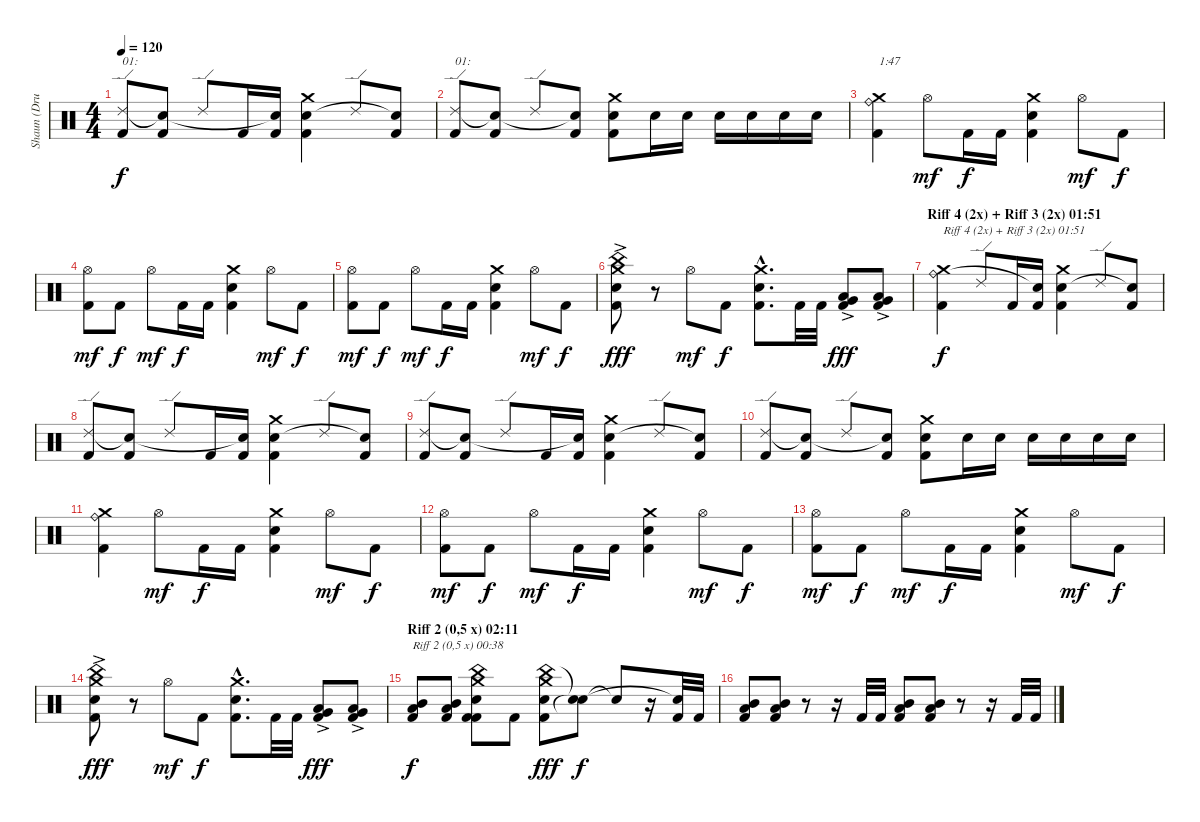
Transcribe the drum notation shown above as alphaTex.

\track ("Shaun (Drums Of DOOM)" "Shaun (Dru") {instrument percussion}
\staff {score}
\articulation defaults
\ts (4 4)
\tempo 120
\clef neutral
\ks c
("Kick (hit) 2" "Ride (edge) 2").8{txt "01:" dy f} ("Kick (hit) 2" "Snare (hit)"{t}).8 "Ride (edge) 2".8 "Kick (hit) 2".16 ("Kick (hit) 2" "Snare (hit)"{t}).16 ("Kick (hit) 2" "Electric Snare (hit)" "Crash medium (hit)").4 "Ride (edge) 2".8 ("Kick (hit) 2" "Snare (hit)"{t}).8 |
("Kick (hit) 2" "Ride (edge) 2").8{txt "01:"} ("Kick (hit) 2" "Snare (hit)"{t}).8 "Ride (edge) 2".8 ("Kick (hit) 2" "Snare (hit)"{t}).8 ("Kick (hit) 2" "Electric Snare (hit)" "Crash medium (hit)").8 "Electric Snare (hit)".16 "Electric Snare (hit)".16 "Electric Snare (hit)".16 "Electric Snare (hit)".16 "Electric Snare (hit)".16 "Electric Snare (hit)".16 |
("Kick (hit) 2" "Ride (bell)" "Crash medium (hit)").4{txt "1:47"} "Hi-Hat (open)".8{dy mf} "Kick (hit) 2".16{dy f} "Kick (hit) 2".16 ("Kick (hit) 2" "Electric Snare (hit)" "Crash medium (hit)").4 "Hi-Hat (open)".8{dy mf} "Kick (hit) 2".8{dy f} |
("Kick (hit) 2" "Hi-Hat (open)").8{dy mf} "Kick (hit) 2".8{dy f} "Hi-Hat (open)".8{dy mf} "Kick (hit) 2".16{dy f} "Kick (hit) 2".16 ("Kick (hit) 2" "Electric Snare (hit)" "Crash medium (hit)").4 "Hi-Hat (open)".8{dy mf} "Kick (hit) 2".8{dy f} |
("Kick (hit) 2" "Hi-Hat (open)").8{dy mf} "Kick (hit) 2".8{dy f} "Hi-Hat (open)".8{dy mf} "Kick (hit) 2".16{dy f} "Kick (hit) 2".16 ("Kick (hit) 2" "Electric Snare (hit)" "Crash medium (hit)").4 "Hi-Hat (open)".8{dy mf} "Kick (hit) 2".8{dy f} |
("Kick (hit) 2" "Electric Snare (hit)" "China (hit)"{ac} "Crash medium (hit)"{ac}).8{dy fff} r.8 "Hi-Hat (open)".8{dy mf} "Kick (hit) 2".8{dy f} ("Kick (hit) 2"{hac} "Electric Snare (hit)"{hac} "Crash medium (hit)"{hac}).8{d} "Kick (hit) 2".32 "Kick (hit) 2".32 ("Kick (hit) 2" "Low Floor Tom (hit)"{ac} "Very Low Tom (hit)"{ac}).8{dy fff} ("Kick (hit) 2" "Low Tom (hit)"{ac} "Very Low Tom (hit)"{ac}).8 |
\section ("" "Riff 4 (2x) + Riff 3 (2x) 01:51")
("Kick (hit) 2" "Ride (bell)" "Crash medium (hit)").4{txt "Riff 4 (2x) + Riff 3 (2x) 01:51" dy f} "Ride (edge) 2".8 "Kick (hit) 2".16 ("Kick (hit) 2" "Snare (hit)"{t}).16 ("Kick (hit) 2" "Electric Snare (hit)" "Crash medium (hit)").4 "Ride (edge) 2".8 ("Kick (hit) 2" "Snare (hit)"{t}).8 |
("Kick (hit) 2" "Ride (edge) 2").8 ("Kick (hit) 2" "Snare (hit)"{t}).8 "Ride (edge) 2".8 "Kick (hit) 2".16 ("Kick (hit) 2" "Snare (hit)"{t}).16 ("Kick (hit) 2" "Electric Snare (hit)" "Crash medium (hit)").4 "Ride (edge) 2".8 ("Kick (hit) 2" "Snare (hit)"{t}).8 |
("Kick (hit) 2" "Ride (edge) 2").8 ("Kick (hit) 2" "Snare (hit)"{t}).8 "Ride (edge) 2".8 "Kick (hit) 2".16 ("Kick (hit) 2" "Snare (hit)"{t}).16 ("Kick (hit) 2" "Electric Snare (hit)" "Crash medium (hit)").4 "Ride (edge) 2".8 ("Kick (hit) 2" "Snare (hit)"{t}).8 |
("Kick (hit) 2" "Ride (edge) 2").8 ("Kick (hit) 2" "Snare (hit)"{t}).8 "Ride (edge) 2".8 ("Kick (hit) 2" "Snare (hit)"{t}).8 ("Kick (hit) 2" "Electric Snare (hit)" "Crash medium (hit)").8 "Electric Snare (hit)".16 "Electric Snare (hit)".16 "Electric Snare (hit)".16 "Electric Snare (hit)".16 "Electric Snare (hit)".16 "Electric Snare (hit)".16 |
("Kick (hit) 2" "Ride (bell)" "Crash medium (hit)").4 "Hi-Hat (open)".8{dy mf} "Kick (hit) 2".16{dy f} "Kick (hit) 2".16 ("Kick (hit) 2" "Electric Snare (hit)" "Crash medium (hit)").4 "Hi-Hat (open)".8{dy mf} "Kick (hit) 2".8{dy f} |
("Kick (hit) 2" "Hi-Hat (open)").8{dy mf} "Kick (hit) 2".8{dy f} "Hi-Hat (open)".8{dy mf} "Kick (hit) 2".16{dy f} "Kick (hit) 2".16 ("Kick (hit) 2" "Electric Snare (hit)" "Crash medium (hit)").4 "Hi-Hat (open)".8{dy mf} "Kick (hit) 2".8{dy f} |
("Kick (hit) 2" "Hi-Hat (open)").8{dy mf} "Kick (hit) 2".8{dy f} "Hi-Hat (open)".8{dy mf} "Kick (hit) 2".16{dy f} "Kick (hit) 2".16 ("Kick (hit) 2" "Electric Snare (hit)" "Crash medium (hit)").4 "Hi-Hat (open)".8{dy mf} "Kick (hit) 2".8{dy f} |
("Kick (hit) 2" "Electric Snare (hit)" "China (hit)"{ac} "Crash medium (hit)"{ac}).8{dy fff} r.8 "Hi-Hat (open)".8{dy mf} "Kick (hit) 2".8{dy f} ("Kick (hit) 2"{hac} "Electric Snare (hit)"{hac} "Crash medium (hit)"{hac}).8{d} "Kick (hit) 2".32 "Kick (hit) 2".32 ("Kick (hit) 2" "Low Floor Tom (hit)"{ac} "Very Low Tom (hit)"{ac}).8{dy fff} ("Kick (hit) 2" "Low Tom (hit)"{ac} "Very Low Tom (hit)"{ac}).8 |
\section ("" "Riff 2 (0,5 x) 02:11")
("Kick (hit) 2" "Low Tom (hit)" "Mid Tom (hit)").8{txt "Riff 2 (0,5 x) 00:38" dy f} ("Kick (hit) 2" "Low Tom (hit)" "Mid Tom (hit)").8 ("Kick (hit) 2" "Kick (hit) 2" "China (hit)" "Electric Snare (hit)" "Crash medium (hit)").8 "Kick (hit) 2".8 ("Kick (hit) 2" "China (hit)" "Electric Snare (hit)" "Crash medium (hit)").8{dy fff} ("Snare (hit)"{t} "Snare (hit)"{t}).8{dy f} "Snare (hit)"{t}.8 r.16 ("Kick (hit) 2" "Snare (hit)"{t}).32 "Kick (hit) 2".32 |
("Kick (hit) 2" "Low Tom (hit)" "Mid Tom (hit)").8 ("Kick (hit) 2" "Low Tom (hit)" "Mid Tom (hit)").8 r.8 r.16 "Kick (hit) 2".32 "Kick (hit) 2".32 ("Kick (hit) 2" "Low Tom (hit)" "Mid Tom (hit)").8 ("Kick (hit) 2" "Low Tom (hit)" "Mid Tom (hit)").8 r.8 r.16 "Kick (hit) 2".32 "Kick (hit) 2".32
